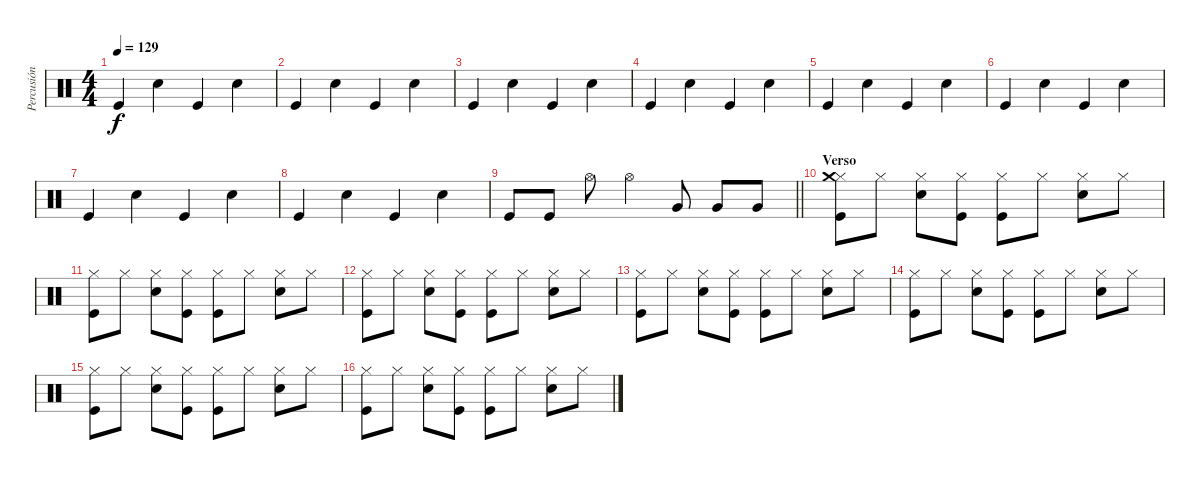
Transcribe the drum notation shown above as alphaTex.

\track ("Percusión" "Percusión") {instrument percussion}
\staff {score}
\articulation defaults
\ts (4 4)
\tempo 129
\clef neutral
\ks c "Kick (hit)".4{dy f} "Electric Snare (hit)".4 "Kick (hit)".4 "Electric Snare (hit)".4
|
"Kick (hit)".4 "Electric Snare (hit)".4 "Kick (hit)".4 "Electric Snare (hit)".4 |
"Kick (hit)".4 "Electric Snare (hit)".4 "Kick (hit)".4 "Electric Snare (hit)".4 |
"Kick (hit)".4 "Electric Snare (hit)".4 "Kick (hit)".4 "Electric Snare (hit)".4 |
"Kick (hit)".4 "Electric Snare (hit)".4 "Kick (hit)".4 "Electric Snare (hit)".4 |
"Kick (hit)".4 "Electric Snare (hit)".4 "Kick (hit)".4 "Electric Snare (hit)".4 |
"Kick (hit)".4 "Electric Snare (hit)".4 "Kick (hit)".4 "Electric Snare (hit)".4 |
"Kick (hit)".4 "Electric Snare (hit)".4 "Kick (hit)".4 "Electric Snare (hit)".4 |
\barLineRight lightlight "Kick (hit)".8 "Kick (hit)".8 "Hi-Hat (open)".8 "Hi-Hat (open)".4 "Very Low Tom (hit)".8 "Very Low Tom (hit)".8 "Very Low Tom (hit)".8
|
\section ("" "Verso")
("Hi-Hat (closed)" "Kick (hit)" "Crash medium (hit)").8 "Hi-Hat (closed)".8 ("Hi-Hat (closed)" "Electric Snare (hit)").8 ("Hi-Hat (closed)" "Kick (hit)").8 ("Hi-Hat (closed)" "Kick (hit)").8 "Hi-Hat (closed)".8 ("Hi-Hat (closed)" "Electric Snare (hit)").8 "Hi-Hat (closed)".8 |
("Hi-Hat (closed)" "Kick (hit)").8 "Hi-Hat (closed)".8 ("Hi-Hat (closed)" "Electric Snare (hit)").8 ("Hi-Hat (closed)" "Kick (hit)").8 ("Hi-Hat (closed)" "Kick (hit)").8 "Hi-Hat (closed)".8 ("Hi-Hat (closed)" "Electric Snare (hit)").8 "Hi-Hat (closed)".8 |
("Hi-Hat (closed)" "Kick (hit)").8 "Hi-Hat (closed)".8 ("Hi-Hat (closed)" "Electric Snare (hit)").8 ("Hi-Hat (closed)" "Kick (hit)").8 ("Hi-Hat (closed)" "Kick (hit)").8 "Hi-Hat (closed)".8 ("Hi-Hat (closed)" "Electric Snare (hit)").8 "Hi-Hat (closed)".8 |
("Hi-Hat (closed)" "Kick (hit)").8 "Hi-Hat (closed)".8 ("Hi-Hat (closed)" "Electric Snare (hit)").8 ("Hi-Hat (closed)" "Kick (hit)").8 ("Hi-Hat (closed)" "Kick (hit)").8 "Hi-Hat (closed)".8 ("Hi-Hat (closed)" "Electric Snare (hit)").8 "Hi-Hat (closed)".8 |
("Hi-Hat (closed)" "Kick (hit)").8 "Hi-Hat (closed)".8 ("Hi-Hat (closed)" "Electric Snare (hit)").8 ("Hi-Hat (closed)" "Kick (hit)").8 ("Hi-Hat (closed)" "Kick (hit)").8 "Hi-Hat (closed)".8 ("Hi-Hat (closed)" "Electric Snare (hit)").8 "Hi-Hat (closed)".8 |
("Hi-Hat (closed)" "Kick (hit)").8 "Hi-Hat (closed)".8 ("Hi-Hat (closed)" "Electric Snare (hit)").8 ("Hi-Hat (closed)" "Kick (hit)").8 ("Hi-Hat (closed)" "Kick (hit)").8 "Hi-Hat (closed)".8 ("Hi-Hat (closed)" "Electric Snare (hit)").8 "Hi-Hat (closed)".8 |
("Hi-Hat (closed)" "Kick (hit)").8 "Hi-Hat (closed)".8 ("Hi-Hat (closed)" "Electric Snare (hit)").8 ("Hi-Hat (closed)" "Kick (hit)").8 ("Hi-Hat (closed)" "Kick (hit)").8 "Hi-Hat (closed)".8 ("Hi-Hat (closed)" "Electric Snare (hit)").8 "Hi-Hat (closed)".8
